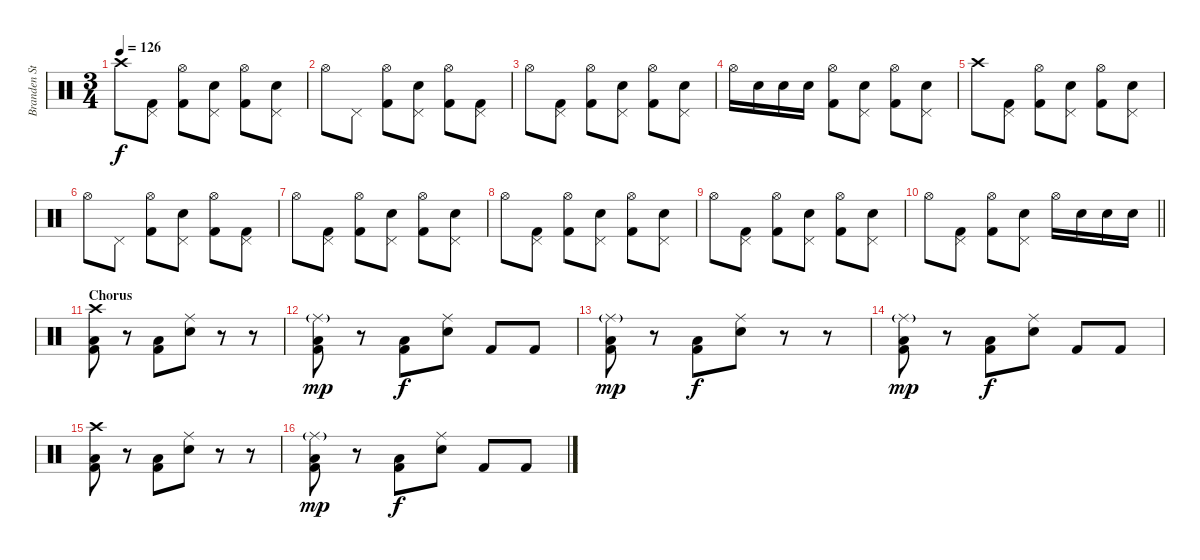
\track ("Branden Steineckert [Drums]" "Branden St") {instrument percussion}
\staff {score}
\articulation defaults
\ts (3 4)
\tempo 126
\clef neutral
\ks c "Crash high (hit)".8{dy f}
("Pedal Hi-Hat (hit)" "Kick (hit) 2").8 ("Hi-Hat (open)" "Kick (hit) 2").8 ("Pedal Hi-Hat (hit)" "Electric Snare (hit)").8 ("Hi-Hat (open)" "Kick (hit) 2").8 ("Pedal Hi-Hat (hit)" "Electric Snare (hit)").8 |
"Hi-Hat (open)".8 "Pedal Hi-Hat (hit)".8 ("Hi-Hat (open)" "Kick (hit) 2").8 ("Pedal Hi-Hat (hit)" "Electric Snare (hit)").8 ("Hi-Hat (open)" "Kick (hit) 2").8 ("Pedal Hi-Hat (hit)" "Kick (hit) 2").8 |
"Hi-Hat (open)".8 ("Pedal Hi-Hat (hit)" "Kick (hit) 2").8 ("Hi-Hat (open)" "Kick (hit) 2").8 ("Pedal Hi-Hat (hit)" "Electric Snare (hit)").8 ("Hi-Hat (open)" "Kick (hit) 2").8 ("Pedal Hi-Hat (hit)" "Electric Snare (hit)").8 |
"Hi-Hat (open)".16 "Electric Snare (hit)".16 "Electric Snare (hit)".16 "Electric Snare (hit)".16 ("Hi-Hat (open)" "Kick (hit) 2").8 ("Pedal Hi-Hat (hit)" "Electric Snare (hit)").8 ("Hi-Hat (open)" "Kick (hit) 2").8 ("Pedal Hi-Hat (hit)" "Electric Snare (hit)").8 |
"Crash high (hit)".8 ("Pedal Hi-Hat (hit)" "Kick (hit) 2").8 ("Hi-Hat (open)" "Kick (hit) 2").8 ("Pedal Hi-Hat (hit)" "Electric Snare (hit)").8 ("Hi-Hat (open)" "Kick (hit) 2").8 ("Pedal Hi-Hat (hit)" "Electric Snare (hit)").8 |
"Hi-Hat (open)".8 "Pedal Hi-Hat (hit)".8 ("Hi-Hat (open)" "Kick (hit) 2").8 ("Pedal Hi-Hat (hit)" "Electric Snare (hit)").8 ("Hi-Hat (open)" "Kick (hit) 2").8 ("Pedal Hi-Hat (hit)" "Kick (hit) 2").8 |
"Hi-Hat (open)".8 ("Pedal Hi-Hat (hit)" "Kick (hit) 2").8 ("Hi-Hat (open)" "Kick (hit) 2").8 ("Pedal Hi-Hat (hit)" "Electric Snare (hit)").8 ("Hi-Hat (open)" "Kick (hit) 2").8 ("Pedal Hi-Hat (hit)" "Electric Snare (hit)").8 |
"Hi-Hat (open)".8 ("Pedal Hi-Hat (hit)" "Kick (hit) 2").8 ("Hi-Hat (open)" "Kick (hit) 2").8 ("Pedal Hi-Hat (hit)" "Electric Snare (hit)").8 ("Hi-Hat (open)" "Kick (hit) 2").8 ("Pedal Hi-Hat (hit)" "Electric Snare (hit)").8 |
"Hi-Hat (open)".8 ("Pedal Hi-Hat (hit)" "Kick (hit) 2").8 ("Hi-Hat (open)" "Kick (hit) 2").8 ("Pedal Hi-Hat (hit)" "Electric Snare (hit)").8 ("Hi-Hat (open)" "Kick (hit) 2").8 ("Pedal Hi-Hat (hit)" "Electric Snare (hit)").8 |
\barLineRight lightlight "Hi-Hat (open)".8
("Pedal Hi-Hat (hit)" "Kick (hit) 2").8 ("Hi-Hat (open)" "Kick (hit) 2").8 ("Pedal Hi-Hat (hit)" "Electric Snare (hit)").8 "Hi-Hat (open)".16 "Electric Snare (hit)".16 "Electric Snare (hit)".16 "Electric Snare (hit)".16 |
\section ("" "Chorus")
("Crash high (hit)" "Low Floor Tom (hit)" "Kick (hit) 2").8 r.8 ("Low Floor Tom (hit)" "Kick (hit) 2").8 ("Ride (middle)" "Electric Snare (hit)").8 r.8 r.8 |
("Ride (middle)"{g} "Low Floor Tom (hit)" "Kick (hit) 2").8{dy mp} r.8 ("Low Floor Tom (hit)" "Kick (hit) 2").8{dy f} ("Ride (middle)" "Electric Snare (hit)").8 "Kick (hit) 2".8 "Kick (hit) 2".8 |
("Ride (middle)"{g} "Low Floor Tom (hit)" "Kick (hit) 2").8{dy mp} r.8 ("Low Floor Tom (hit)" "Kick (hit) 2").8{dy f} ("Ride (middle)" "Electric Snare (hit)").8 r.8 r.8 |
("Ride (middle)"{g} "Low Floor Tom (hit)" "Kick (hit) 2").8{dy mp} r.8 ("Low Floor Tom (hit)" "Kick (hit) 2").8{dy f} ("Ride (middle)" "Electric Snare (hit)").8 "Kick (hit) 2".8 "Kick (hit) 2".8 |
("Crash high (hit)" "Low Floor Tom (hit)" "Kick (hit) 2").8 r.8 ("Low Floor Tom (hit)" "Kick (hit) 2").8 ("Ride (middle)" "Electric Snare (hit)").8 r.8 r.8 |
("Ride (middle)"{g} "Low Floor Tom (hit)" "Kick (hit) 2").8{dy mp} r.8 ("Low Floor Tom (hit)" "Kick (hit) 2").8{dy f} ("Ride (middle)" "Electric Snare (hit)").8 "Kick (hit) 2".8 "Kick (hit) 2".8
